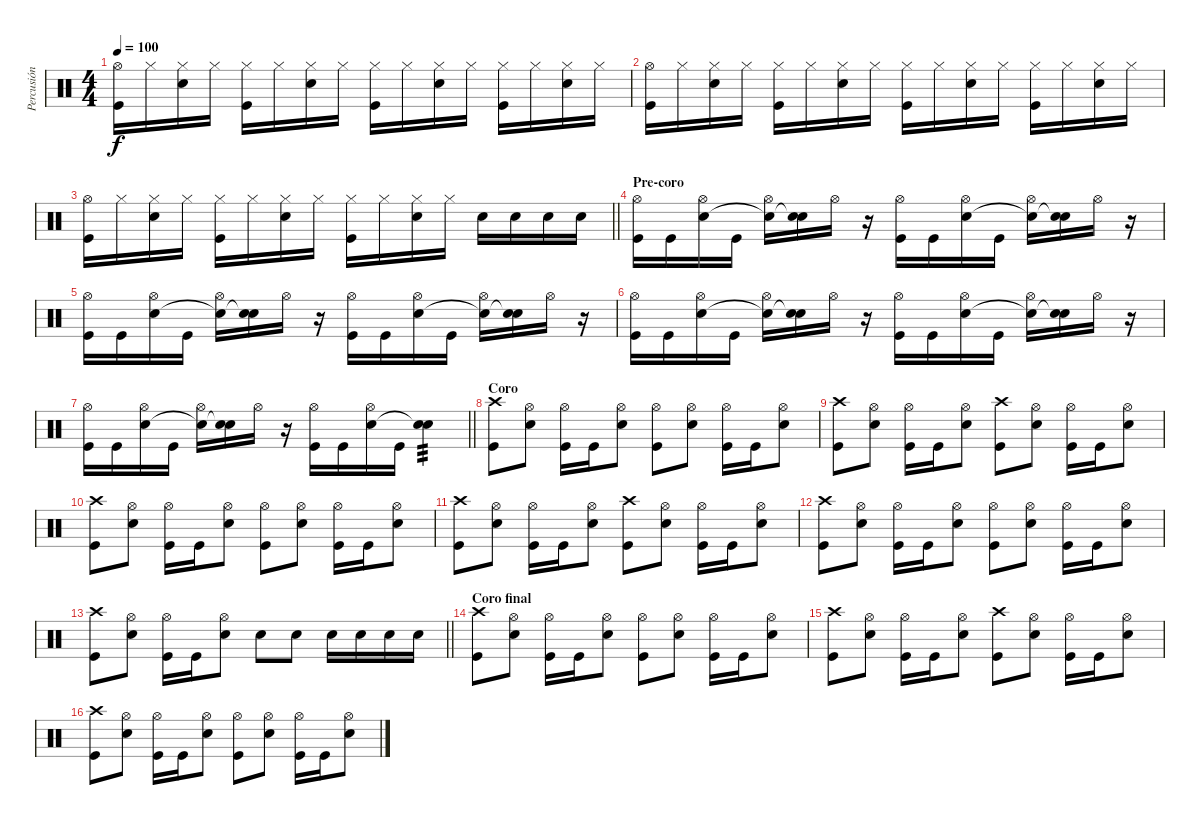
\track ("Percusión" "Percusión") {instrument percussion}
\staff {score}
\articulation defaults
\ts (4 4)
\tempo 100
\clef neutral
\ks c
("Hi-Hat (open)" "Kick (hit)").16{dy f} "Hi-Hat (closed)".16 ("Hi-Hat (closed)" "Electric Snare (hit)").16 "Hi-Hat (closed)".16 ("Hi-Hat (closed)" "Kick (hit)").16 "Hi-Hat (closed)".16 ("Hi-Hat (closed)" "Electric Snare (hit)").16 "Hi-Hat (closed)".16 ("Hi-Hat (closed)" "Kick (hit)").16 "Hi-Hat (closed)".16 ("Hi-Hat (closed)" "Electric Snare (hit)").16 "Hi-Hat (closed)".16 ("Hi-Hat (closed)" "Kick (hit)").16 "Hi-Hat (closed)".16 ("Hi-Hat (closed)" "Electric Snare (hit)").16 "Hi-Hat (closed)".16 |
("Hi-Hat (open)" "Kick (hit)").16 "Hi-Hat (closed)".16 ("Hi-Hat (closed)" "Electric Snare (hit)").16 "Hi-Hat (closed)".16 ("Hi-Hat (closed)" "Kick (hit)").16 "Hi-Hat (closed)".16 ("Hi-Hat (closed)" "Electric Snare (hit)").16 "Hi-Hat (closed)".16 ("Hi-Hat (closed)" "Kick (hit)").16 "Hi-Hat (closed)".16 ("Hi-Hat (closed)" "Electric Snare (hit)").16 "Hi-Hat (closed)".16 ("Hi-Hat (closed)" "Kick (hit)").16 "Hi-Hat (closed)".16 ("Hi-Hat (closed)" "Electric Snare (hit)").16 "Hi-Hat (closed)".16 |
\barLineRight lightlight
("Hi-Hat (open)" "Kick (hit)").16 "Hi-Hat (closed)".16 ("Hi-Hat (closed)" "Electric Snare (hit)").16 "Hi-Hat (closed)".16 ("Hi-Hat (closed)" "Kick (hit)").16 "Hi-Hat (closed)".16 ("Hi-Hat (closed)" "Electric Snare (hit)").16 "Hi-Hat (closed)".16 ("Hi-Hat (closed)" "Kick (hit)").16 "Hi-Hat (closed)".16 ("Hi-Hat (closed)" "Electric Snare (hit)").16 "Hi-Hat (closed)".16 "Electric Snare (hit)".16 "Electric Snare (hit)".16 "Electric Snare (hit)".16 "Electric Snare (hit)".16 |
\section ("" "Pre-coro")
("Hi-Hat (open)" "Kick (hit)").16 "Kick (hit)".16 ("Hi-Hat (open)" "Electric Snare (hit)").16 "Kick (hit)".16 ("Hi-Hat (open)" "Snare (hit)"{t}).16 ("Electric Snare (hit)" "Snare (hit)"{t}).16 "Hi-Hat (open)".16 r.16 ("Hi-Hat (open)" "Kick (hit)").16 "Kick (hit)".16 ("Hi-Hat (open)" "Electric Snare (hit)").16 "Kick (hit)".16 ("Hi-Hat (open)" "Snare (hit)"{t}).16 ("Electric Snare (hit)" "Snare (hit)"{t}).16 "Hi-Hat (open)".16 r.16 |
("Hi-Hat (open)" "Kick (hit)").16 "Kick (hit)".16 ("Hi-Hat (open)" "Electric Snare (hit)").16 "Kick (hit)".16 ("Hi-Hat (open)" "Snare (hit)"{t}).16 ("Electric Snare (hit)" "Snare (hit)"{t}).16 "Hi-Hat (open)".16 r.16 ("Hi-Hat (open)" "Kick (hit)").16 "Kick (hit)".16 ("Hi-Hat (open)" "Electric Snare (hit)").16 "Kick (hit)".16 ("Hi-Hat (open)" "Snare (hit)"{t}).16 ("Electric Snare (hit)" "Snare (hit)"{t}).16 "Hi-Hat (open)".16 r.16 |
("Hi-Hat (open)" "Kick (hit)").16 "Kick (hit)".16 ("Hi-Hat (open)" "Electric Snare (hit)").16 "Kick (hit)".16 ("Hi-Hat (open)" "Snare (hit)"{t}).16 ("Electric Snare (hit)" "Snare (hit)"{t}).16 "Hi-Hat (open)".16 r.16 ("Hi-Hat (open)" "Kick (hit)").16 "Kick (hit)".16 ("Hi-Hat (open)" "Electric Snare (hit)").16 "Kick (hit)".16 ("Hi-Hat (open)" "Snare (hit)"{t}).16 ("Electric Snare (hit)" "Snare (hit)"{t}).16 "Hi-Hat (open)".16 r.16 |
\barLineRight lightlight
("Hi-Hat (open)" "Kick (hit)").16 "Kick (hit)".16 ("Hi-Hat (open)" "Electric Snare (hit)").16 "Kick (hit)".16 ("Hi-Hat (open)" "Snare (hit)"{t}).16 ("Electric Snare (hit)" "Snare (hit)"{t}).16 "Hi-Hat (open)".16 r.16 ("Hi-Hat (open)" "Kick (hit)").16 "Kick (hit)".16 ("Hi-Hat (open)" "Electric Snare (hit)").16 "Kick (hit)".16 ("Electric Snare (hit)" "Snare (hit)"{t}).4{tp 3} |
\section ("" "Coro")
("Crash high (hit)" "Kick (hit)").8 ("Hi-Hat (open)" "Electric Snare (hit)").8 ("Hi-Hat (open)" "Kick (hit)").16 "Kick (hit)".16 ("Hi-Hat (open)" "Electric Snare (hit)").8 ("Hi-Hat (open)" "Kick (hit)").8 ("Hi-Hat (open)" "Electric Snare (hit)").8 ("Hi-Hat (open)" "Kick (hit)").16 "Kick (hit)".16 ("Hi-Hat (open)" "Electric Snare (hit)").8 |
("Crash high (hit)" "Kick (hit)").8 ("Hi-Hat (open)" "Electric Snare (hit)").8 ("Hi-Hat (open)" "Kick (hit)").16 "Kick (hit)".16 ("Hi-Hat (open)" "Electric Snare (hit)").8 ("Crash high (hit)" "Kick (hit)").8 ("Hi-Hat (open)" "Electric Snare (hit)").8 ("Hi-Hat (open)" "Kick (hit)").16 "Kick (hit)".16 ("Hi-Hat (open)" "Electric Snare (hit)").8 |
("Crash high (hit)" "Kick (hit)").8 ("Hi-Hat (open)" "Electric Snare (hit)").8 ("Hi-Hat (open)" "Kick (hit)").16 "Kick (hit)".16 ("Hi-Hat (open)" "Electric Snare (hit)").8 ("Hi-Hat (open)" "Kick (hit)").8 ("Hi-Hat (open)" "Electric Snare (hit)").8 ("Hi-Hat (open)" "Kick (hit)").16 "Kick (hit)".16 ("Hi-Hat (open)" "Electric Snare (hit)").8 |
("Crash high (hit)" "Kick (hit)").8 ("Hi-Hat (open)" "Electric Snare (hit)").8 ("Hi-Hat (open)" "Kick (hit)").16 "Kick (hit)".16 ("Hi-Hat (open)" "Electric Snare (hit)").8 ("Crash high (hit)" "Kick (hit)").8 ("Hi-Hat (open)" "Electric Snare (hit)").8 ("Hi-Hat (open)" "Kick (hit)").16 "Kick (hit)".16 ("Hi-Hat (open)" "Electric Snare (hit)").8 |
("Crash high (hit)" "Kick (hit)").8 ("Hi-Hat (open)" "Electric Snare (hit)").8 ("Hi-Hat (open)" "Kick (hit)").16 "Kick (hit)".16 ("Hi-Hat (open)" "Electric Snare (hit)").8 ("Hi-Hat (open)" "Kick (hit)").8 ("Hi-Hat (open)" "Electric Snare (hit)").8 ("Hi-Hat (open)" "Kick (hit)").16 "Kick (hit)".16 ("Hi-Hat (open)" "Electric Snare (hit)").8 |
\barLineRight lightlight
("Crash high (hit)" "Kick (hit)").8 ("Hi-Hat (open)" "Electric Snare (hit)").8 ("Hi-Hat (open)" "Kick (hit)").16 "Kick (hit)".16 ("Hi-Hat (open)" "Electric Snare (hit)").8 "Electric Snare (hit)".8 "Electric Snare (hit)".8 "Electric Snare (hit)".16 "Electric Snare (hit)".16 "Electric Snare (hit)".16 "Electric Snare (hit)".16 |
\section ("" "Coro final")
("Crash high (hit)" "Kick (hit)").8 ("Hi-Hat (open)" "Electric Snare (hit)").8 ("Hi-Hat (open)" "Kick (hit)").16 "Kick (hit)".16 ("Hi-Hat (open)" "Electric Snare (hit)").8 ("Hi-Hat (open)" "Kick (hit)").8 ("Hi-Hat (open)" "Electric Snare (hit)").8 ("Hi-Hat (open)" "Kick (hit)").16 "Kick (hit)".16 ("Hi-Hat (open)" "Electric Snare (hit)").8 |
("Crash high (hit)" "Kick (hit)").8 ("Hi-Hat (open)" "Electric Snare (hit)").8 ("Hi-Hat (open)" "Kick (hit)").16 "Kick (hit)".16 ("Hi-Hat (open)" "Electric Snare (hit)").8 ("Crash high (hit)" "Kick (hit)").8 ("Hi-Hat (open)" "Electric Snare (hit)").8 ("Hi-Hat (open)" "Kick (hit)").16 "Kick (hit)".16 ("Hi-Hat (open)" "Electric Snare (hit)").8 |
("Crash high (hit)" "Kick (hit)").8 ("Hi-Hat (open)" "Electric Snare (hit)").8 ("Hi-Hat (open)" "Kick (hit)").16 "Kick (hit)".16 ("Hi-Hat (open)" "Electric Snare (hit)").8 ("Hi-Hat (open)" "Kick (hit)").8 ("Hi-Hat (open)" "Electric Snare (hit)").8 ("Hi-Hat (open)" "Kick (hit)").16 "Kick (hit)".16 ("Hi-Hat (open)" "Electric Snare (hit)").8
